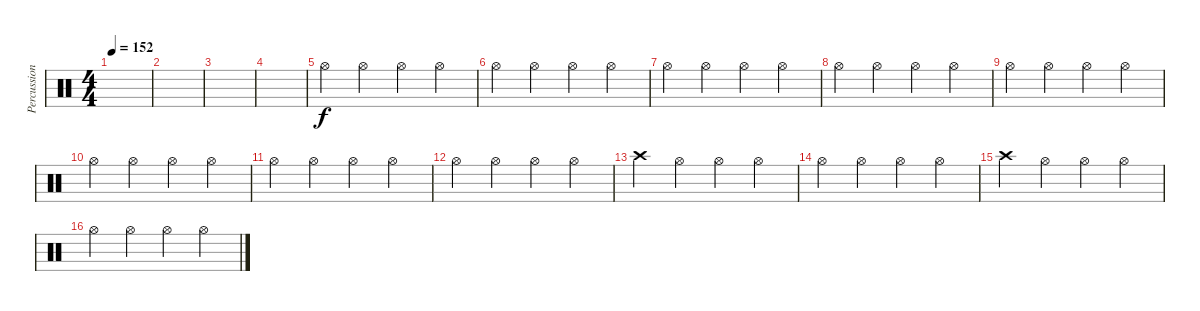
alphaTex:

\track ("Percussion" "Percussion") {instrument percussion}
\staff {score}
\articulation defaults
\ts (4 4)
\tempo 152
\clef neutral
\ks c
|
|
|
|
"Hi-Hat (open)".4 "Hi-Hat (open)".4 "Hi-Hat (open)".4 "Hi-Hat (open)".4 |
"Hi-Hat (open)".4 "Hi-Hat (open)".4 "Hi-Hat (open)".4 "Hi-Hat (open)".4 |
"Hi-Hat (open)".4 "Hi-Hat (open)".4 "Hi-Hat (open)".4 "Hi-Hat (open)".4 |
"Hi-Hat (open)".4 "Hi-Hat (open)".4 "Hi-Hat (open)".4 "Hi-Hat (open)".4 |
"Hi-Hat (open)".4 "Hi-Hat (open)".4 "Hi-Hat (open)".4 "Hi-Hat (open)".4 |
"Hi-Hat (open)".4 "Hi-Hat (open)".4 "Hi-Hat (open)".4 "Hi-Hat (open)".4 |
"Hi-Hat (open)".4 "Hi-Hat (open)".4 "Hi-Hat (open)".4 "Hi-Hat (open)".4 |
"Hi-Hat (open)".4 "Hi-Hat (open)".4 "Hi-Hat (open)".4 "Hi-Hat (open)".4 |
"Crash high (hit)".4 "Hi-Hat (open)".4 "Hi-Hat (open)".4 "Hi-Hat (open)".4 |
"Hi-Hat (open)".4 "Hi-Hat (open)".4 "Hi-Hat (open)".4 "Hi-Hat (open)".4 |
"Crash high (hit)".4 "Hi-Hat (open)".4 "Hi-Hat (open)".4 "Hi-Hat (open)".4 |
"Hi-Hat (open)".4 "Hi-Hat (open)".4 "Hi-Hat (open)".4 "Hi-Hat (open)".4
